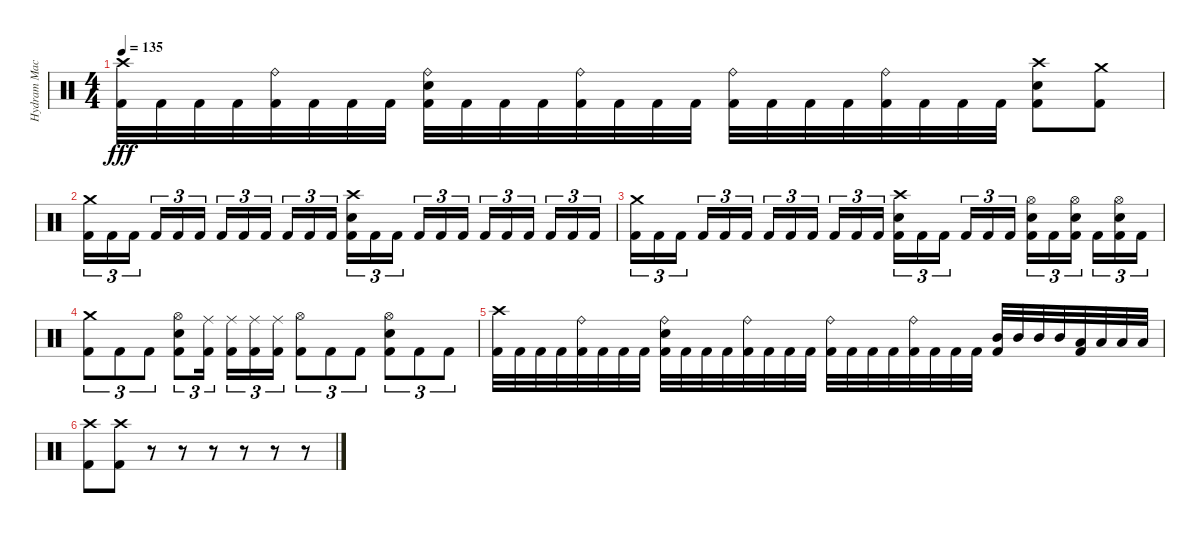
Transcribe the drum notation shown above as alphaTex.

\track ("Hydram Machine" "Hydram Mac") {instrument percussion}
\staff {score}
\articulation defaults
\ts (4 4)
\tempo 135
\clef neutral
\ks c
("Crash high (hit)" "Kick (hit) 2").32{dy fff} "Kick (hit) 2".32 "Kick (hit) 2".32 "Kick (hit) 2".32 ("Ride (bell)" "Kick (hit) 2").32 "Kick (hit) 2".32 "Kick (hit) 2".32 "Kick (hit) 2".32 ("Ride (bell)" "Electric Snare (hit)" "Kick (hit) 2").32 "Kick (hit) 2".32 "Kick (hit) 2".32 "Kick (hit) 2".32 ("Ride (bell)" "Kick (hit) 2").32 "Kick (hit) 2".32 "Kick (hit) 2".32 "Kick (hit) 2".32 ("Ride (bell)" "Kick (hit) 2").32 "Kick (hit) 2".32 "Kick (hit) 2".32 "Kick (hit) 2".32 ("Ride (bell)" "Kick (hit) 2").32 "Kick (hit) 2".32 "Kick (hit) 2".32 "Kick (hit) 2".32 ("Crash high (hit)" "Electric Snare (hit)" "Kick (hit) 2").8 ("Crash medium (hit)" "Kick (hit) 2").8 |
("Crash medium (hit)" "Kick (hit) 2").16{tu (3 2)} "Kick (hit) 2".16{tu (3 2)} "Kick (hit) 2".16{tu (3 2) beam splitsecondary} "Kick (hit) 2".16{tu (3 2)} "Kick (hit) 2".16{tu (3 2)} "Kick (hit) 2".16{tu (3 2)} "Kick (hit) 2".16{tu (3 2)} "Kick (hit) 2".16{tu (3 2)} "Kick (hit) 2".16{tu (3 2) beam splitsecondary} "Kick (hit) 2".16{tu (3 2)} "Kick (hit) 2".16{tu (3 2)} "Kick (hit) 2".16{tu (3 2)} ("Crash high (hit)" "Electric Snare (hit)" "Kick (hit) 2").16{tu (3 2)} "Kick (hit) 2".16{tu (3 2)} "Kick (hit) 2".16{tu (3 2) beam splitsecondary} "Kick (hit) 2".16{tu (3 2)} "Kick (hit) 2".16{tu (3 2)} "Kick (hit) 2".16{tu (3 2)} "Kick (hit) 2".16{tu (3 2)} "Kick (hit) 2".16{tu (3 2)} "Kick (hit) 2".16{tu (3 2) beam splitsecondary} "Kick (hit) 2".16{tu (3 2)} "Kick (hit) 2".16{tu (3 2)} "Kick (hit) 2".16{tu (3 2)} |
("Crash medium (hit)" "Kick (hit) 2").16{tu (3 2)} "Kick (hit) 2".16{tu (3 2)} "Kick (hit) 2".16{tu (3 2) beam splitsecondary} "Kick (hit) 2".16{tu (3 2)} "Kick (hit) 2".16{tu (3 2)} "Kick (hit) 2".16{tu (3 2)} "Kick (hit) 2".16{tu (3 2)} "Kick (hit) 2".16{tu (3 2)} "Kick (hit) 2".16{tu (3 2) beam splitsecondary} "Kick (hit) 2".16{tu (3 2)} "Kick (hit) 2".16{tu (3 2)} "Kick (hit) 2".16{tu (3 2)} ("Crash high (hit)" "Electric Snare (hit)" "Kick (hit) 2").16{tu (3 2)} "Kick (hit) 2".16{tu (3 2)} "Kick (hit) 2".16{tu (3 2) beam splitsecondary} "Kick (hit) 2".16{tu (3 2)} "Kick (hit) 2".16{tu (3 2)} "Kick (hit) 2".16{tu (3 2)} ("Hi-Hat (open)" "Electric Snare (hit)" "Kick (hit) 2").16{tu (3 2)} "Kick (hit) 2".16{tu (3 2)} ("Hi-Hat (open)" "Electric Snare (hit)" "Kick (hit) 2").16{tu (3 2) beam splitsecondary} "Kick (hit) 2".16{tu (3 2)} ("Hi-Hat (open)" "Electric Snare (hit)" "Kick (hit) 2").16{tu (3 2)} "Kick (hit) 2".16{tu (3 2)} |
("Crash medium (hit)" "Kick (hit) 2").8{tu (3 2)} "Kick (hit) 2".8{tu (3 2)} "Kick (hit) 2".8{tu (3 2)} ("Hi-Hat (open)" "Electric Snare (hit)" "Kick (hit) 2").8{tu (3 2)} ("Ride (middle)" "Kick (hit) 2").16{tu (3 2) beam splitsecondary} ("Ride (middle)" "Kick (hit) 2").16{tu (3 2)} ("Ride (middle)" "Kick (hit) 2").16{tu (3 2)} ("Ride (middle)" "Kick (hit) 2").16{tu (3 2)} ("Hi-Hat (open)" "Kick (hit) 2").8{tu (3 2)} "Kick (hit) 2".8{tu (3 2)} "Kick (hit) 2".8{tu (3 2)} ("Hi-Hat (open)" "Electric Snare (hit)" "Kick (hit) 2").8{tu (3 2)} "Kick (hit) 2".8{tu (3 2)} "Kick (hit) 2".8{tu (3 2)} |
("Crash high (hit)" "Kick (hit) 2").32 "Kick (hit) 2".32 "Kick (hit) 2".32 "Kick (hit) 2".32 ("Ride (bell)" "Kick (hit) 2").32 "Kick (hit) 2".32 "Kick (hit) 2".32 "Kick (hit) 2".32 ("Ride (bell)" "Electric Snare (hit)" "Kick (hit) 2").32 "Kick (hit) 2".32 "Kick (hit) 2".32 "Kick (hit) 2".32 ("Ride (bell)" "Kick (hit) 2").32 "Kick (hit) 2".32 "Kick (hit) 2".32 "Kick (hit) 2".32 ("Ride (bell)" "Kick (hit) 2").32 "Kick (hit) 2".32 "Kick (hit) 2".32 "Kick (hit) 2".32 ("Ride (bell)" "Kick (hit) 2").32 "Kick (hit) 2".32 "Kick (hit) 2".32 "Kick (hit) 2".32 ("Mid Tom (hit)" "Kick (hit) 2").32 "Mid Tom (hit)".32 "Mid Tom (hit)".32 "Mid Tom (hit)".32 ("Low Tom (hit)" "Kick (hit) 2").32 "Low Tom (hit)".32 "Low Tom (hit)".32 "Low Tom (hit)".32 |
("Crash high (hit)" "Kick (hit) 2").8 ("Crash high (hit)" "Kick (hit) 2").8 r.8 r.8 r.8 r.8 r.8 r.8
